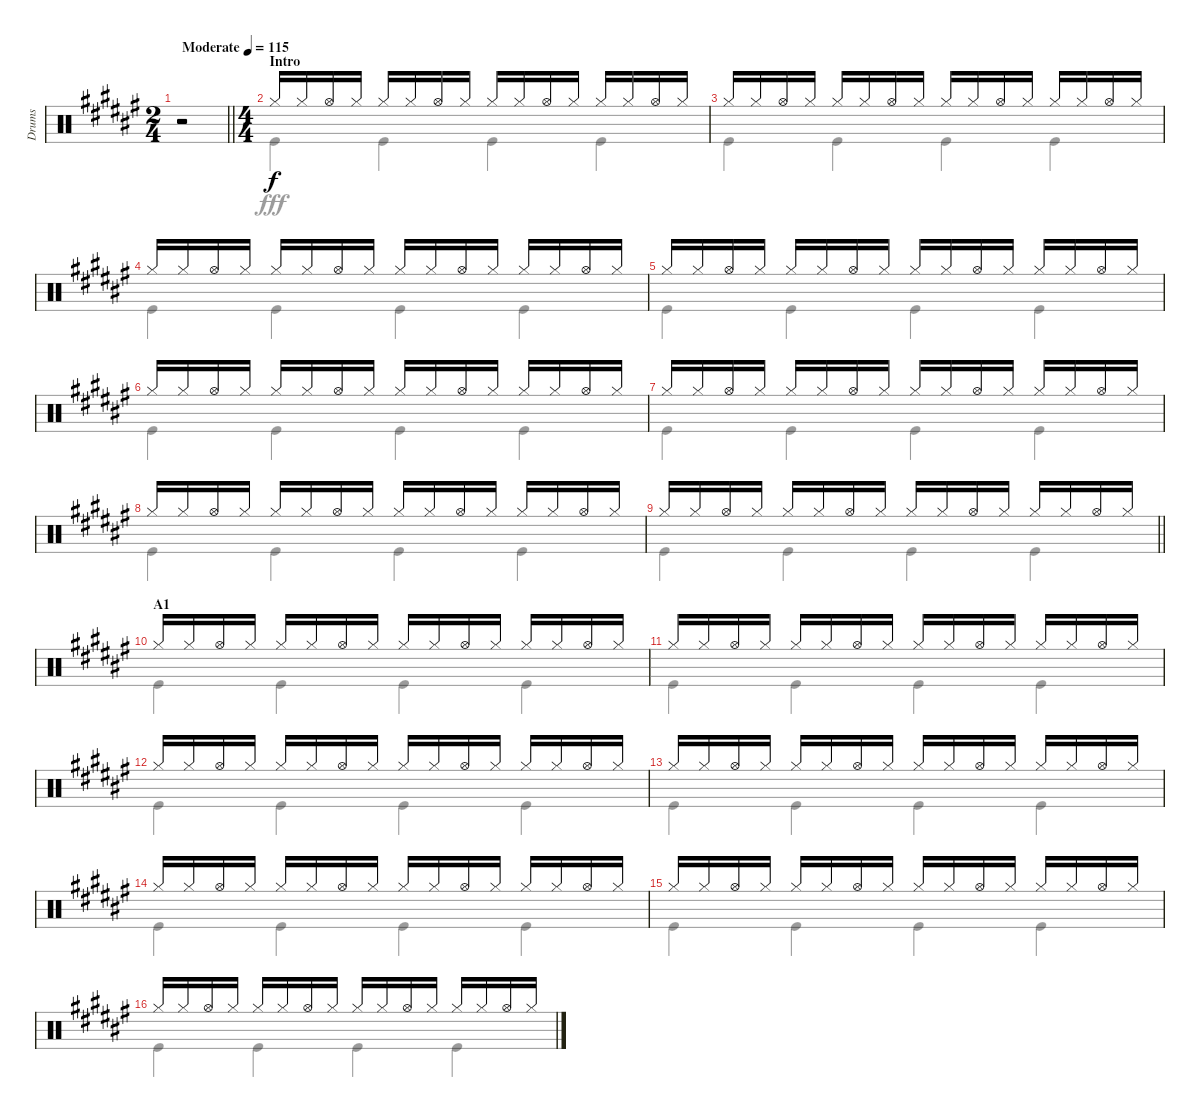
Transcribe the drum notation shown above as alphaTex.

\track ("Drums" "Drums") {instrument percussion}
\staff {score}
\articulation defaults
\voice
\ts (2 4)
\tempo (115 "Moderate")
\clef neutral
\barLineRight lightlight
\ks f#
r.2{dy f} |
\ts (4 4)
\section ("" "Intro")
"Hi-Hat (closed)".16 "Hi-Hat (closed)".16 "Hi-Hat (open)".16 "Hi-Hat (closed)".16 "Hi-Hat (closed)".16 "Hi-Hat (closed)".16 "Hi-Hat (open)".16 "Hi-Hat (closed)".16 "Hi-Hat (closed)".16 "Hi-Hat (closed)".16 "Hi-Hat (open)".16 "Hi-Hat (closed)".16 "Hi-Hat (closed)".16 "Hi-Hat (closed)".16 "Hi-Hat (open)".16 "Hi-Hat (closed)".16 |
"Hi-Hat (closed)".16 "Hi-Hat (closed)".16 "Hi-Hat (open)".16 "Hi-Hat (closed)".16 "Hi-Hat (closed)".16 "Hi-Hat (closed)".16 "Hi-Hat (open)".16 "Hi-Hat (closed)".16 "Hi-Hat (closed)".16 "Hi-Hat (closed)".16 "Hi-Hat (open)".16 "Hi-Hat (closed)".16 "Hi-Hat (closed)".16 "Hi-Hat (closed)".16 "Hi-Hat (open)".16 "Hi-Hat (closed)".16 |
"Hi-Hat (closed)".16 "Hi-Hat (closed)".16 "Hi-Hat (open)".16 "Hi-Hat (closed)".16 "Hi-Hat (closed)".16 "Hi-Hat (closed)".16 "Hi-Hat (open)".16 "Hi-Hat (closed)".16 "Hi-Hat (closed)".16 "Hi-Hat (closed)".16 "Hi-Hat (open)".16 "Hi-Hat (closed)".16 "Hi-Hat (closed)".16 "Hi-Hat (closed)".16 "Hi-Hat (open)".16 "Hi-Hat (closed)".16 |
"Hi-Hat (closed)".16 "Hi-Hat (closed)".16 "Hi-Hat (open)".16 "Hi-Hat (closed)".16 "Hi-Hat (closed)".16 "Hi-Hat (closed)".16 "Hi-Hat (open)".16 "Hi-Hat (closed)".16 "Hi-Hat (closed)".16 "Hi-Hat (closed)".16 "Hi-Hat (open)".16 "Hi-Hat (closed)".16 "Hi-Hat (closed)".16 "Hi-Hat (closed)".16 "Hi-Hat (open)".16 "Hi-Hat (closed)".16 |
"Hi-Hat (closed)".16 "Hi-Hat (closed)".16 "Hi-Hat (open)".16 "Hi-Hat (closed)".16 "Hi-Hat (closed)".16 "Hi-Hat (closed)".16 "Hi-Hat (open)".16 "Hi-Hat (closed)".16 "Hi-Hat (closed)".16 "Hi-Hat (closed)".16 "Hi-Hat (open)".16 "Hi-Hat (closed)".16 "Hi-Hat (closed)".16 "Hi-Hat (closed)".16 "Hi-Hat (open)".16 "Hi-Hat (closed)".16 |
"Hi-Hat (closed)".16 "Hi-Hat (closed)".16 "Hi-Hat (open)".16 "Hi-Hat (closed)".16 "Hi-Hat (closed)".16 "Hi-Hat (closed)".16 "Hi-Hat (open)".16 "Hi-Hat (closed)".16 "Hi-Hat (closed)".16 "Hi-Hat (closed)".16 "Hi-Hat (open)".16 "Hi-Hat (closed)".16 "Hi-Hat (closed)".16 "Hi-Hat (closed)".16 "Hi-Hat (open)".16 "Hi-Hat (closed)".16 |
"Hi-Hat (closed)".16 "Hi-Hat (closed)".16 "Hi-Hat (open)".16 "Hi-Hat (closed)".16 "Hi-Hat (closed)".16 "Hi-Hat (closed)".16 "Hi-Hat (open)".16 "Hi-Hat (closed)".16 "Hi-Hat (closed)".16 "Hi-Hat (closed)".16 "Hi-Hat (open)".16 "Hi-Hat (closed)".16 "Hi-Hat (closed)".16 "Hi-Hat (closed)".16 "Hi-Hat (open)".16 "Hi-Hat (closed)".16 |
\barLineRight lightlight "Hi-Hat (closed)".16 "Hi-Hat (closed)".16 "Hi-Hat (open)".16 "Hi-Hat (closed)".16 "Hi-Hat (closed)".16 "Hi-Hat (closed)".16 "Hi-Hat (open)".16 "Hi-Hat (closed)".16 "Hi-Hat (closed)".16 "Hi-Hat (closed)".16 "Hi-Hat (open)".16 "Hi-Hat (closed)".16 "Hi-Hat (closed)".16 "Hi-Hat (closed)".16 "Hi-Hat (open)".16 "Hi-Hat (closed)".16
|
\section ("" "A1")
"Hi-Hat (closed)".16 "Hi-Hat (closed)".16 "Hi-Hat (open)".16 "Hi-Hat (closed)".16 "Hi-Hat (closed)".16 "Hi-Hat (closed)".16 "Hi-Hat (open)".16 "Hi-Hat (closed)".16 "Hi-Hat (closed)".16 "Hi-Hat (closed)".16 "Hi-Hat (open)".16 "Hi-Hat (closed)".16 "Hi-Hat (closed)".16 "Hi-Hat (closed)".16 "Hi-Hat (open)".16 "Hi-Hat (closed)".16 |
"Hi-Hat (closed)".16 "Hi-Hat (closed)".16 "Hi-Hat (open)".16 "Hi-Hat (closed)".16 "Hi-Hat (closed)".16 "Hi-Hat (closed)".16 "Hi-Hat (open)".16 "Hi-Hat (closed)".16 "Hi-Hat (closed)".16 "Hi-Hat (closed)".16 "Hi-Hat (open)".16 "Hi-Hat (closed)".16 "Hi-Hat (closed)".16 "Hi-Hat (closed)".16 "Hi-Hat (open)".16 "Hi-Hat (closed)".16 |
"Hi-Hat (closed)".16 "Hi-Hat (closed)".16 "Hi-Hat (open)".16 "Hi-Hat (closed)".16 "Hi-Hat (closed)".16 "Hi-Hat (closed)".16 "Hi-Hat (open)".16 "Hi-Hat (closed)".16 "Hi-Hat (closed)".16 "Hi-Hat (closed)".16 "Hi-Hat (open)".16 "Hi-Hat (closed)".16 "Hi-Hat (closed)".16 "Hi-Hat (closed)".16 "Hi-Hat (open)".16 "Hi-Hat (closed)".16 |
"Hi-Hat (closed)".16 "Hi-Hat (closed)".16 "Hi-Hat (open)".16 "Hi-Hat (closed)".16 "Hi-Hat (closed)".16 "Hi-Hat (closed)".16 "Hi-Hat (open)".16 "Hi-Hat (closed)".16 "Hi-Hat (closed)".16 "Hi-Hat (closed)".16 "Hi-Hat (open)".16 "Hi-Hat (closed)".16 "Hi-Hat (closed)".16 "Hi-Hat (closed)".16 "Hi-Hat (open)".16 "Hi-Hat (closed)".16 |
"Hi-Hat (closed)".16 "Hi-Hat (closed)".16 "Hi-Hat (open)".16 "Hi-Hat (closed)".16 "Hi-Hat (closed)".16 "Hi-Hat (closed)".16 "Hi-Hat (open)".16 "Hi-Hat (closed)".16 "Hi-Hat (closed)".16 "Hi-Hat (closed)".16 "Hi-Hat (open)".16 "Hi-Hat (closed)".16 "Hi-Hat (closed)".16 "Hi-Hat (closed)".16 "Hi-Hat (open)".16 "Hi-Hat (closed)".16 |
"Hi-Hat (closed)".16 "Hi-Hat (closed)".16 "Hi-Hat (open)".16 "Hi-Hat (closed)".16 "Hi-Hat (closed)".16 "Hi-Hat (closed)".16 "Hi-Hat (open)".16 "Hi-Hat (closed)".16 "Hi-Hat (closed)".16 "Hi-Hat (closed)".16 "Hi-Hat (open)".16 "Hi-Hat (closed)".16 "Hi-Hat (closed)".16 "Hi-Hat (closed)".16 "Hi-Hat (open)".16 "Hi-Hat (closed)".16 |
"Hi-Hat (closed)".16 "Hi-Hat (closed)".16 "Hi-Hat (open)".16 "Hi-Hat (closed)".16 "Hi-Hat (closed)".16 "Hi-Hat (closed)".16 "Hi-Hat (open)".16 "Hi-Hat (closed)".16 "Hi-Hat (closed)".16 "Hi-Hat (closed)".16 "Hi-Hat (open)".16 "Hi-Hat (closed)".16 "Hi-Hat (closed)".16 "Hi-Hat (closed)".16 "Hi-Hat (open)".16 "Hi-Hat (closed)".16
\voice
\clef neutral
\ottava regular
\simile none
\barLineRight lightlight
\ks f#
r.2{dy fff} |
"Kick (hit)".4 "Kick (hit)".4 "Kick (hit)".4 "Kick (hit)".4 |
"Kick (hit)".4 "Kick (hit)".4 "Kick (hit)".4 "Kick (hit)".4 |
"Kick (hit)".4 "Kick (hit)".4 "Kick (hit)".4 "Kick (hit)".4 |
"Kick (hit)".4 "Kick (hit)".4 "Kick (hit)".4 "Kick (hit)".4 |
"Kick (hit)".4 "Kick (hit)".4 "Kick (hit)".4 "Kick (hit)".4 |
"Kick (hit)".4 "Kick (hit)".4 "Kick (hit)".4 "Kick (hit)".4 |
"Kick (hit)".4 "Kick (hit)".4 "Kick (hit)".4 "Kick (hit)".4 |
\barLineRight lightlight "Kick (hit)".4 "Kick (hit)".4 "Kick (hit)".4 "Kick (hit)".4
|
"Kick (hit)".4 "Kick (hit)".4 "Kick (hit)".4 "Kick (hit)".4 |
"Kick (hit)".4 "Kick (hit)".4 "Kick (hit)".4 "Kick (hit)".4 |
"Kick (hit)".4 "Kick (hit)".4 "Kick (hit)".4 "Kick (hit)".4 |
"Kick (hit)".4 "Kick (hit)".4 "Kick (hit)".4 "Kick (hit)".4 |
"Kick (hit)".4 "Kick (hit)".4 "Kick (hit)".4 "Kick (hit)".4 |
"Kick (hit)".4 "Kick (hit)".4 "Kick (hit)".4 "Kick (hit)".4 |
"Kick (hit)".4 "Kick (hit)".4 "Kick (hit)".4 "Kick (hit)".4
